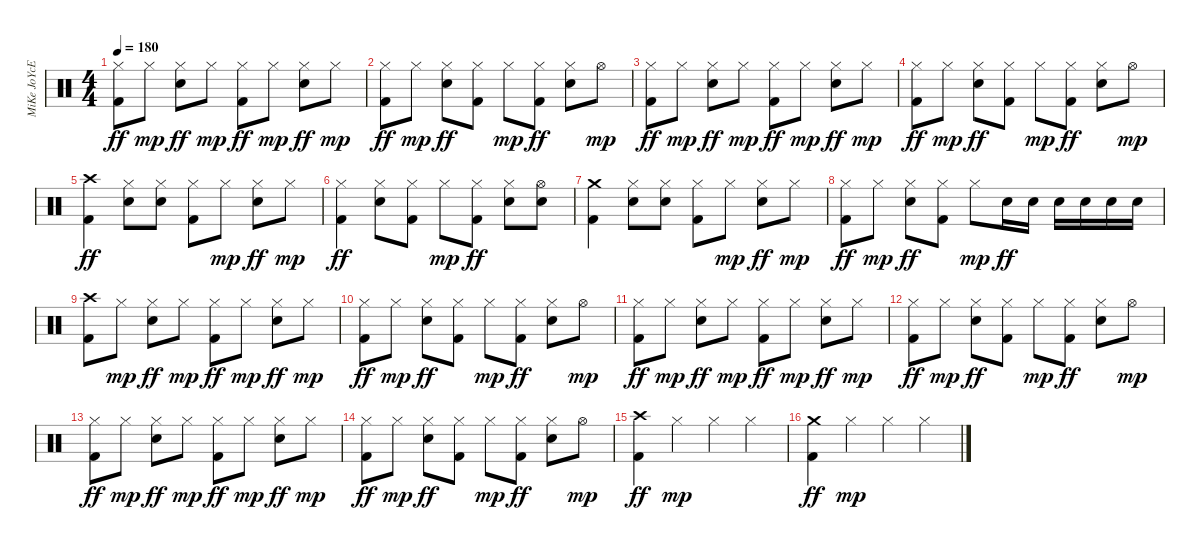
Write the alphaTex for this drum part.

\track ("MiKe JoYcE" "MiKe JoYcE") {instrument percussion}
\staff {score}
\articulation defaults
\ts (4 4)
\tempo 180
\clef neutral
\ks c
("Hi-Hat (closed)" "Kick (hit) 2").8{dy ff} "Hi-Hat (closed)".8{dy mp} ("Hi-Hat (closed)" "Electric Snare (hit)").8{dy ff} "Hi-Hat (closed)".8{dy mp} ("Hi-Hat (closed)" "Kick (hit) 2").8{dy ff} "Hi-Hat (closed)".8{dy mp} ("Hi-Hat (closed)" "Electric Snare (hit)").8{dy ff} "Hi-Hat (closed)".8{dy mp} |
("Hi-Hat (closed)" "Kick (hit) 2").8{dy ff} "Hi-Hat (closed)".8{dy mp} ("Hi-Hat (closed)" "Electric Snare (hit)").8{dy ff} ("Hi-Hat (closed)" "Kick (hit) 2").8 "Hi-Hat (closed)".8{dy mp} ("Hi-Hat (closed)" "Kick (hit) 2").8{dy ff} ("Hi-Hat (closed)" "Electric Snare (hit)").8 "Hi-Hat (open)".8{dy mp} |
("Hi-Hat (closed)" "Kick (hit) 2").8{dy ff} "Hi-Hat (closed)".8{dy mp} ("Hi-Hat (closed)" "Electric Snare (hit)").8{dy ff} "Hi-Hat (closed)".8{dy mp} ("Hi-Hat (closed)" "Kick (hit) 2").8{dy ff} "Hi-Hat (closed)".8{dy mp} ("Hi-Hat (closed)" "Electric Snare (hit)").8{dy ff} "Hi-Hat (closed)".8{dy mp} |
("Hi-Hat (closed)" "Kick (hit) 2").8{dy ff} "Hi-Hat (closed)".8{dy mp} ("Hi-Hat (closed)" "Electric Snare (hit)").8{dy ff} ("Hi-Hat (closed)" "Kick (hit) 2").8 "Hi-Hat (closed)".8{dy mp} ("Hi-Hat (closed)" "Kick (hit) 2").8{dy ff} ("Hi-Hat (closed)" "Electric Snare (hit)").8 "Hi-Hat (open)".8{dy mp} |
("Crash high (hit)" "Kick (hit) 2").4{dy ff} ("Hi-Hat (closed)" "Electric Snare (hit)").8 ("Hi-Hat (closed)" "Electric Snare (hit)").8 ("Hi-Hat (closed)" "Kick (hit) 2").8 "Hi-Hat (closed)".8{dy mp} ("Hi-Hat (closed)" "Electric Snare (hit)").8{dy ff} "Hi-Hat (closed)".8{dy mp} |
("Hi-Hat (closed)" "Kick (hit) 2").4{dy ff} ("Hi-Hat (closed)" "Electric Snare (hit)").8 ("Hi-Hat (closed)" "Kick (hit) 2").8 "Hi-Hat (closed)".8{dy mp} ("Hi-Hat (closed)" "Kick (hit) 2").8{dy ff} ("Hi-Hat (closed)" "Electric Snare (hit)").8 ("Hi-Hat (open)" "Electric Snare (hit)").8 |
("Crash medium (hit)" "Kick (hit) 2").4 ("Hi-Hat (closed)" "Electric Snare (hit)").8 ("Hi-Hat (closed)" "Electric Snare (hit)").8 ("Hi-Hat (closed)" "Kick (hit) 2").8 "Hi-Hat (closed)".8{dy mp} ("Hi-Hat (closed)" "Electric Snare (hit)").8{dy ff} "Hi-Hat (closed)".8{dy mp} |
("Hi-Hat (closed)" "Kick (hit) 2").8{dy ff} "Hi-Hat (closed)".8{dy mp} ("Hi-Hat (closed)" "Electric Snare (hit)").8{dy ff} ("Hi-Hat (closed)" "Kick (hit) 2").8 "Hi-Hat (closed)".8{dy mp} "Electric Snare (hit)".16{dy ff} "Electric Snare (hit)".16 "Electric Snare (hit)".16 "Electric Snare (hit)".16 "Electric Snare (hit)".16 "Electric Snare (hit)".16 |
("Crash high (hit)" "Kick (hit) 2").8 "Hi-Hat (closed)".8{dy mp} ("Hi-Hat (closed)" "Electric Snare (hit)").8{dy ff} "Hi-Hat (closed)".8{dy mp} ("Hi-Hat (closed)" "Kick (hit) 2").8{dy ff} "Hi-Hat (closed)".8{dy mp} ("Hi-Hat (closed)" "Electric Snare (hit)").8{dy ff} "Hi-Hat (closed)".8{dy mp} |
("Hi-Hat (closed)" "Kick (hit) 2").8{dy ff} "Hi-Hat (closed)".8{dy mp} ("Hi-Hat (closed)" "Electric Snare (hit)").8{dy ff} ("Hi-Hat (closed)" "Kick (hit) 2").8 "Hi-Hat (closed)".8{dy mp} ("Hi-Hat (closed)" "Kick (hit) 2").8{dy ff} ("Hi-Hat (closed)" "Electric Snare (hit)").8 "Hi-Hat (open)".8{dy mp} |
("Hi-Hat (closed)" "Kick (hit) 2").8{dy ff} "Hi-Hat (closed)".8{dy mp} ("Hi-Hat (closed)" "Electric Snare (hit)").8{dy ff} "Hi-Hat (closed)".8{dy mp} ("Hi-Hat (closed)" "Kick (hit) 2").8{dy ff} "Hi-Hat (closed)".8{dy mp} ("Hi-Hat (closed)" "Electric Snare (hit)").8{dy ff} "Hi-Hat (closed)".8{dy mp} |
("Hi-Hat (closed)" "Kick (hit) 2").8{dy ff} "Hi-Hat (closed)".8{dy mp} ("Hi-Hat (closed)" "Electric Snare (hit)").8{dy ff} ("Hi-Hat (closed)" "Kick (hit) 2").8 "Hi-Hat (closed)".8{dy mp} ("Hi-Hat (closed)" "Kick (hit) 2").8{dy ff} ("Hi-Hat (closed)" "Electric Snare (hit)").8 "Hi-Hat (open)".8{dy mp} |
("Hi-Hat (closed)" "Kick (hit) 2").8{dy ff} "Hi-Hat (closed)".8{dy mp} ("Hi-Hat (closed)" "Electric Snare (hit)").8{dy ff} "Hi-Hat (closed)".8{dy mp} ("Hi-Hat (closed)" "Kick (hit) 2").8{dy ff} "Hi-Hat (closed)".8{dy mp} ("Hi-Hat (closed)" "Electric Snare (hit)").8{dy ff} "Hi-Hat (closed)".8{dy mp} |
("Hi-Hat (closed)" "Kick (hit) 2").8{dy ff} "Hi-Hat (closed)".8{dy mp} ("Hi-Hat (closed)" "Electric Snare (hit)").8{dy ff} ("Hi-Hat (closed)" "Kick (hit) 2").8 "Hi-Hat (closed)".8{dy mp} ("Hi-Hat (closed)" "Kick (hit) 2").8{dy ff} ("Hi-Hat (closed)" "Electric Snare (hit)").8 "Hi-Hat (open)".8{dy mp} |
("Crash high (hit)" "Kick (hit) 2").4{dy ff} "Hi-Hat (closed)".4{dy mp} "Hi-Hat (closed)".4 "Hi-Hat (closed)".4 |
("Crash medium (hit)" "Kick (hit) 2").4{dy ff} "Hi-Hat (closed)".4{dy mp} "Hi-Hat (closed)".4 "Hi-Hat (closed)".4
